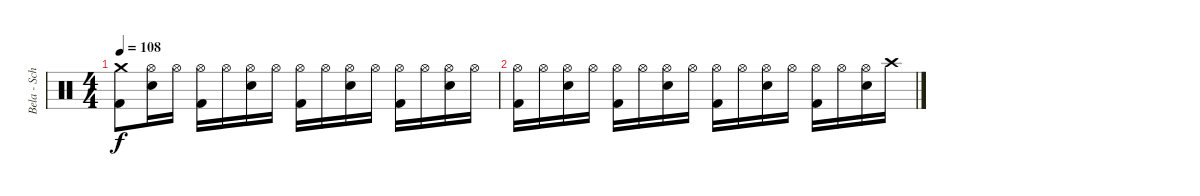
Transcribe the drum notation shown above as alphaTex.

\track ("Bela - Schlagzeug" "Bela - Sch") {instrument percussion}
\staff {score}
\articulation defaults
\ts (4 4)
\tempo 108
\clef neutral
\ks c
("Crash medium (hit)" "Kick (hit) 2").8{dy f} ("Hi-Hat (open)" "Snare (hit) 2").16 "Hi-Hat (open)".16 ("Hi-Hat (open)" "Kick (hit) 2").16 "Hi-Hat (open)".16 ("Hi-Hat (open)" "Snare (hit) 2").16 "Hi-Hat (open)".16 ("Hi-Hat (open)" "Kick (hit) 2").16 "Hi-Hat (open)".16 ("Hi-Hat (open)" "Snare (hit) 2").16 "Hi-Hat (open)".16 ("Hi-Hat (open)" "Kick (hit) 2").16 "Hi-Hat (open)".16 ("Hi-Hat (open)" "Snare (hit) 2").16 "Hi-Hat (open)".16 |
("Hi-Hat (open)" "Kick (hit) 2").16 "Hi-Hat (open)".16 ("Hi-Hat (open)" "Snare (hit) 2").16 "Hi-Hat (open)".16 ("Hi-Hat (open)" "Kick (hit) 2").16 "Hi-Hat (open)".16 ("Hi-Hat (open)" "Snare (hit) 2").16 "Hi-Hat (open)".16 ("Hi-Hat (open)" "Kick (hit) 2").16 "Hi-Hat (open)".16 ("Hi-Hat (open)" "Snare (hit) 2").16 "Hi-Hat (open)".16 ("Hi-Hat (open)" "Kick (hit) 2").16 "Hi-Hat (open)".16 ("Hi-Hat (open)" "Snare (hit) 2").16 "Crash high (hit)".16
